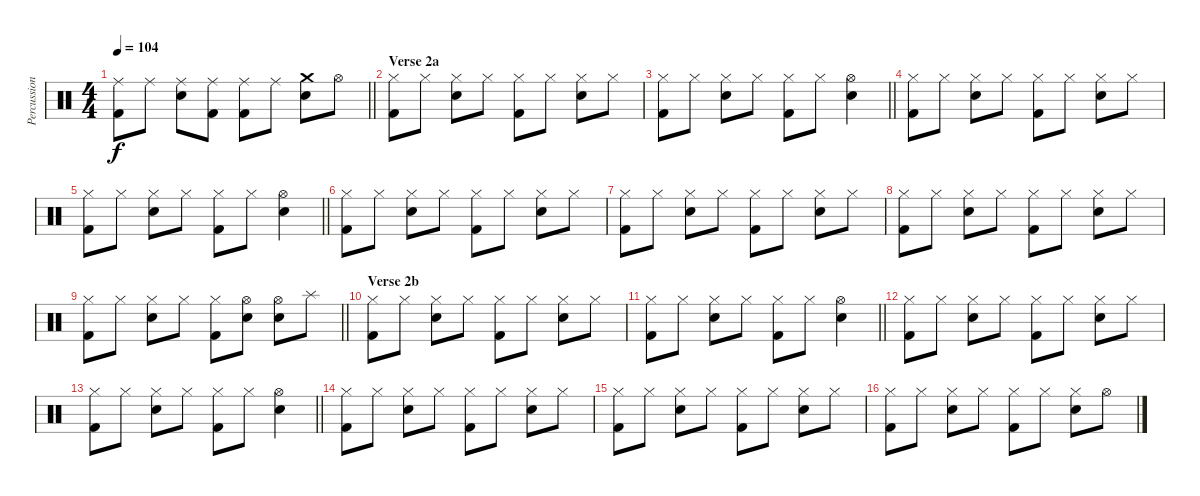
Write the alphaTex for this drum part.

\track ("Percussion" "Percussion") {instrument percussion}
\staff {score}
\articulation defaults
\ts (4 4)
\tempo 104
\clef neutral
\barLineRight lightlight
\ks c
("Kick (hit) 2" "Ride (middle)").8{dy f} "Ride (middle)".8 ("Ride (middle)" "Electric Snare (hit)").8 ("Kick (hit) 2" "Ride (middle)").8 ("Kick (hit) 2" "Ride (middle)").8 "Ride (middle)".8 ("Crash medium (hit)" "Electric Snare (hit)").8 "Hi-Hat (open)".8 |
\section ("" "Verse 2a")
("Kick (hit) 2" "Hi-Hat (closed)").8 "Hi-Hat (closed)".8 ("Hi-Hat (closed)" "Electric Snare (hit)").8 "Hi-Hat (closed)".8 ("Kick (hit) 2" "Hi-Hat (closed)").8 "Hi-Hat (closed)".8 ("Hi-Hat (closed)" "Electric Snare (hit)").8 "Hi-Hat (closed)".8 |
\barLineRight lightlight
("Kick (hit) 2" "Hi-Hat (closed)").8 "Hi-Hat (closed)".8 ("Hi-Hat (closed)" "Electric Snare (hit)").8 "Hi-Hat (closed)".8 ("Kick (hit) 2" "Hi-Hat (closed)").8 "Hi-Hat (closed)".8 ("Hi-Hat (open)" "Electric Snare (hit)").4 |
("Kick (hit) 2" "Hi-Hat (closed)").8 "Hi-Hat (closed)".8 ("Hi-Hat (closed)" "Electric Snare (hit)").8 "Hi-Hat (closed)".8 ("Kick (hit) 2" "Hi-Hat (closed)").8 "Hi-Hat (closed)".8 ("Hi-Hat (closed)" "Electric Snare (hit)").8 "Hi-Hat (closed)".8 |
\barLineRight lightlight
("Kick (hit) 2" "Hi-Hat (closed)").8 "Hi-Hat (closed)".8 ("Hi-Hat (closed)" "Electric Snare (hit)").8 "Hi-Hat (closed)".8 ("Kick (hit) 2" "Hi-Hat (closed)").8 "Hi-Hat (closed)".8 ("Hi-Hat (open)" "Electric Snare (hit)").4 |
("Kick (hit) 2" "Hi-Hat (closed)").8 "Hi-Hat (closed)".8 ("Hi-Hat (closed)" "Electric Snare (hit)").8 "Hi-Hat (closed)".8 ("Kick (hit) 2" "Hi-Hat (closed)").8 "Hi-Hat (closed)".8 ("Hi-Hat (closed)" "Electric Snare (hit)").8 "Hi-Hat (closed)".8 |
("Kick (hit) 2" "Hi-Hat (closed)").8 "Hi-Hat (closed)".8 ("Hi-Hat (closed)" "Electric Snare (hit)").8 "Hi-Hat (closed)".8 ("Kick (hit) 2" "Hi-Hat (closed)").8 "Hi-Hat (closed)".8 ("Hi-Hat (closed)" "Electric Snare (hit)").8 "Hi-Hat (closed)".8 |
("Kick (hit) 2" "Hi-Hat (closed)").8 "Hi-Hat (closed)".8 ("Hi-Hat (closed)" "Electric Snare (hit)").8 "Hi-Hat (closed)".8 ("Kick (hit) 2" "Hi-Hat (closed)").8 "Hi-Hat (closed)".8 ("Hi-Hat (closed)" "Electric Snare (hit)").8 "Hi-Hat (closed)".8 |
\barLineRight lightlight
("Kick (hit) 2" "Hi-Hat (closed)").8 "Hi-Hat (closed)".8 ("Hi-Hat (closed)" "Electric Snare (hit)").8 "Hi-Hat (closed)".8 ("Kick (hit) 2" "Hi-Hat (closed)").8 ("Hi-Hat (open)" "Electric Snare (hit)").8 ("Hi-Hat (open)" "Electric Snare (hit)").8 "Splash (hit)".8 |
\section ("" "Verse 2b")
("Kick (hit) 2" "Hi-Hat (closed)").8 "Hi-Hat (closed)".8 ("Hi-Hat (closed)" "Electric Snare (hit)").8 "Hi-Hat (closed)".8 ("Kick (hit) 2" "Hi-Hat (closed)").8 "Hi-Hat (closed)".8 ("Hi-Hat (closed)" "Electric Snare (hit)").8 "Hi-Hat (closed)".8 |
\barLineRight lightlight
("Kick (hit) 2" "Hi-Hat (closed)").8 "Hi-Hat (closed)".8 ("Hi-Hat (closed)" "Electric Snare (hit)").8 "Hi-Hat (closed)".8 ("Kick (hit) 2" "Hi-Hat (closed)").8 "Hi-Hat (closed)".8 ("Hi-Hat (open)" "Electric Snare (hit)").4 |
("Kick (hit) 2" "Hi-Hat (closed)").8 "Hi-Hat (closed)".8 ("Hi-Hat (closed)" "Electric Snare (hit)").8 "Hi-Hat (closed)".8 ("Kick (hit) 2" "Hi-Hat (closed)").8 "Hi-Hat (closed)".8 ("Hi-Hat (closed)" "Electric Snare (hit)").8 "Hi-Hat (closed)".8 |
\barLineRight lightlight
("Kick (hit) 2" "Hi-Hat (closed)").8 "Hi-Hat (closed)".8 ("Hi-Hat (closed)" "Electric Snare (hit)").8 "Hi-Hat (closed)".8 ("Kick (hit) 2" "Hi-Hat (closed)").8 "Hi-Hat (closed)".8 ("Hi-Hat (open)" "Electric Snare (hit)").4 |
("Kick (hit) 2" "Hi-Hat (closed)").8 "Hi-Hat (closed)".8 ("Hi-Hat (closed)" "Electric Snare (hit)").8 "Hi-Hat (closed)".8 ("Kick (hit) 2" "Hi-Hat (closed)").8 "Hi-Hat (closed)".8 ("Hi-Hat (closed)" "Electric Snare (hit)").8 "Hi-Hat (closed)".8 |
("Kick (hit) 2" "Hi-Hat (closed)").8 "Hi-Hat (closed)".8 ("Hi-Hat (closed)" "Electric Snare (hit)").8 "Hi-Hat (closed)".8 ("Kick (hit) 2" "Hi-Hat (closed)").8 "Hi-Hat (closed)".8 ("Hi-Hat (closed)" "Electric Snare (hit)").8 "Hi-Hat (closed)".8 |
("Kick (hit) 2" "Hi-Hat (closed)").8 "Hi-Hat (closed)".8 ("Hi-Hat (closed)" "Electric Snare (hit)").8 "Hi-Hat (closed)".8 ("Kick (hit) 2" "Hi-Hat (closed)").8 "Hi-Hat (closed)".8 ("Hi-Hat (closed)" "Electric Snare (hit)").8 "Hi-Hat (open)".8
